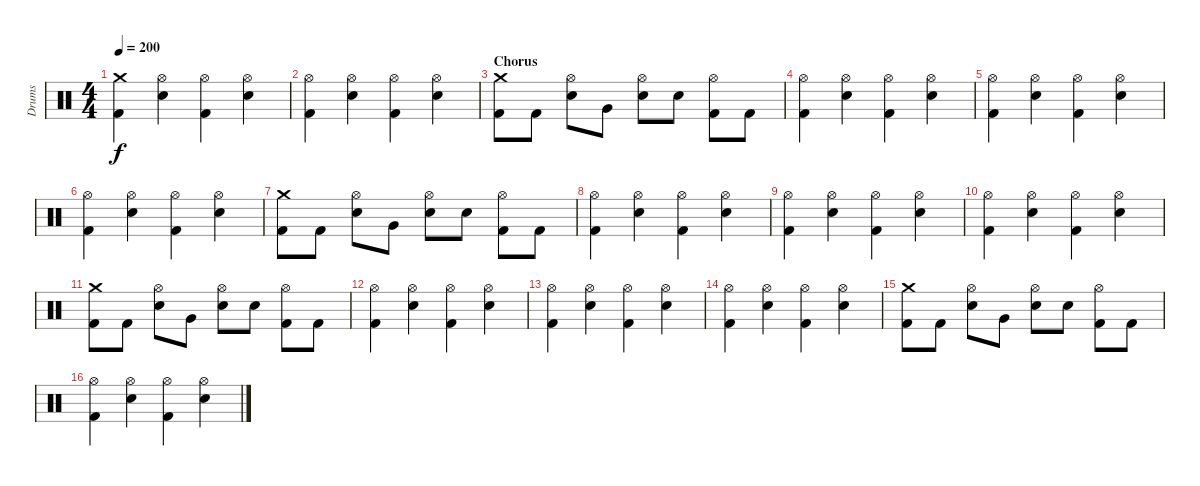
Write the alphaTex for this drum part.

\track ("Drums" "Drums") {instrument percussion}
\staff {score}
\articulation defaults
\ts (4 4)
\tempo 200
\clef neutral
\ks c
("Crash medium (hit)" "Kick (hit) 2").4{dy f} ("Hi-Hat (open)" "Snare (hit) 2").4 ("Hi-Hat (open)" "Kick (hit) 2").4 ("Hi-Hat (open)" "Snare (hit) 2").4 |
("Hi-Hat (open)" "Kick (hit) 2").4 ("Hi-Hat (open)" "Snare (hit) 2").4 ("Hi-Hat (open)" "Kick (hit) 2").4 ("Hi-Hat (open)" "Snare (hit) 2").4 |
\section ("" "Chorus")
("Crash medium (hit)" "Kick (hit) 2").8 "Kick (hit) 2".8 ("Hi-Hat (open)" "Snare (hit) 2").8 "Very Low Tom (hit)".8 ("Hi-Hat (open)" "Snare (hit) 2").8 "Snare (hit) 2".8 ("Hi-Hat (open)" "Kick (hit) 2").8 "Kick (hit) 2".8 |
("Hi-Hat (open)" "Kick (hit) 2").4 ("Hi-Hat (open)" "Snare (hit) 2").4 ("Hi-Hat (open)" "Kick (hit) 2").4 ("Hi-Hat (open)" "Snare (hit) 2").4 |
("Hi-Hat (open)" "Kick (hit) 2").4 ("Hi-Hat (open)" "Snare (hit) 2").4 ("Hi-Hat (open)" "Kick (hit) 2").4 ("Hi-Hat (open)" "Snare (hit) 2").4 |
("Hi-Hat (open)" "Kick (hit) 2").4 ("Hi-Hat (open)" "Snare (hit) 2").4 ("Hi-Hat (open)" "Kick (hit) 2").4 ("Hi-Hat (open)" "Snare (hit) 2").4 |
("Crash medium (hit)" "Kick (hit) 2").8 "Kick (hit) 2".8 ("Hi-Hat (open)" "Snare (hit) 2").8 "Very Low Tom (hit)".8 ("Hi-Hat (open)" "Snare (hit) 2").8 "Snare (hit) 2".8 ("Hi-Hat (open)" "Kick (hit) 2").8 "Kick (hit) 2".8 |
("Hi-Hat (open)" "Kick (hit) 2").4 ("Hi-Hat (open)" "Snare (hit) 2").4 ("Hi-Hat (open)" "Kick (hit) 2").4 ("Hi-Hat (open)" "Snare (hit) 2").4 |
("Hi-Hat (open)" "Kick (hit) 2").4 ("Hi-Hat (open)" "Snare (hit) 2").4 ("Hi-Hat (open)" "Kick (hit) 2").4 ("Hi-Hat (open)" "Snare (hit) 2").4 |
("Hi-Hat (open)" "Kick (hit) 2").4 ("Hi-Hat (open)" "Snare (hit) 2").4 ("Hi-Hat (open)" "Kick (hit) 2").4 ("Hi-Hat (open)" "Snare (hit) 2").4 |
("Crash medium (hit)" "Kick (hit) 2").8 "Kick (hit) 2".8 ("Hi-Hat (open)" "Snare (hit) 2").8 "Very Low Tom (hit)".8 ("Hi-Hat (open)" "Snare (hit) 2").8 "Snare (hit) 2".8 ("Hi-Hat (open)" "Kick (hit) 2").8 "Kick (hit) 2".8 |
("Hi-Hat (open)" "Kick (hit) 2").4 ("Hi-Hat (open)" "Snare (hit) 2").4 ("Hi-Hat (open)" "Kick (hit) 2").4 ("Hi-Hat (open)" "Snare (hit) 2").4 |
("Hi-Hat (open)" "Kick (hit) 2").4 ("Hi-Hat (open)" "Snare (hit) 2").4 ("Hi-Hat (open)" "Kick (hit) 2").4 ("Hi-Hat (open)" "Snare (hit) 2").4 |
("Hi-Hat (open)" "Kick (hit) 2").4 ("Hi-Hat (open)" "Snare (hit) 2").4 ("Hi-Hat (open)" "Kick (hit) 2").4 ("Hi-Hat (open)" "Snare (hit) 2").4 |
("Crash medium (hit)" "Kick (hit) 2").8 "Kick (hit) 2".8 ("Hi-Hat (open)" "Snare (hit) 2").8 "Very Low Tom (hit)".8 ("Hi-Hat (open)" "Snare (hit) 2").8 "Snare (hit) 2".8 ("Hi-Hat (open)" "Kick (hit) 2").8 "Kick (hit) 2".8 |
("Hi-Hat (open)" "Kick (hit) 2").4 ("Hi-Hat (open)" "Snare (hit) 2").4 ("Hi-Hat (open)" "Kick (hit) 2").4 ("Hi-Hat (open)" "Snare (hit) 2").4
